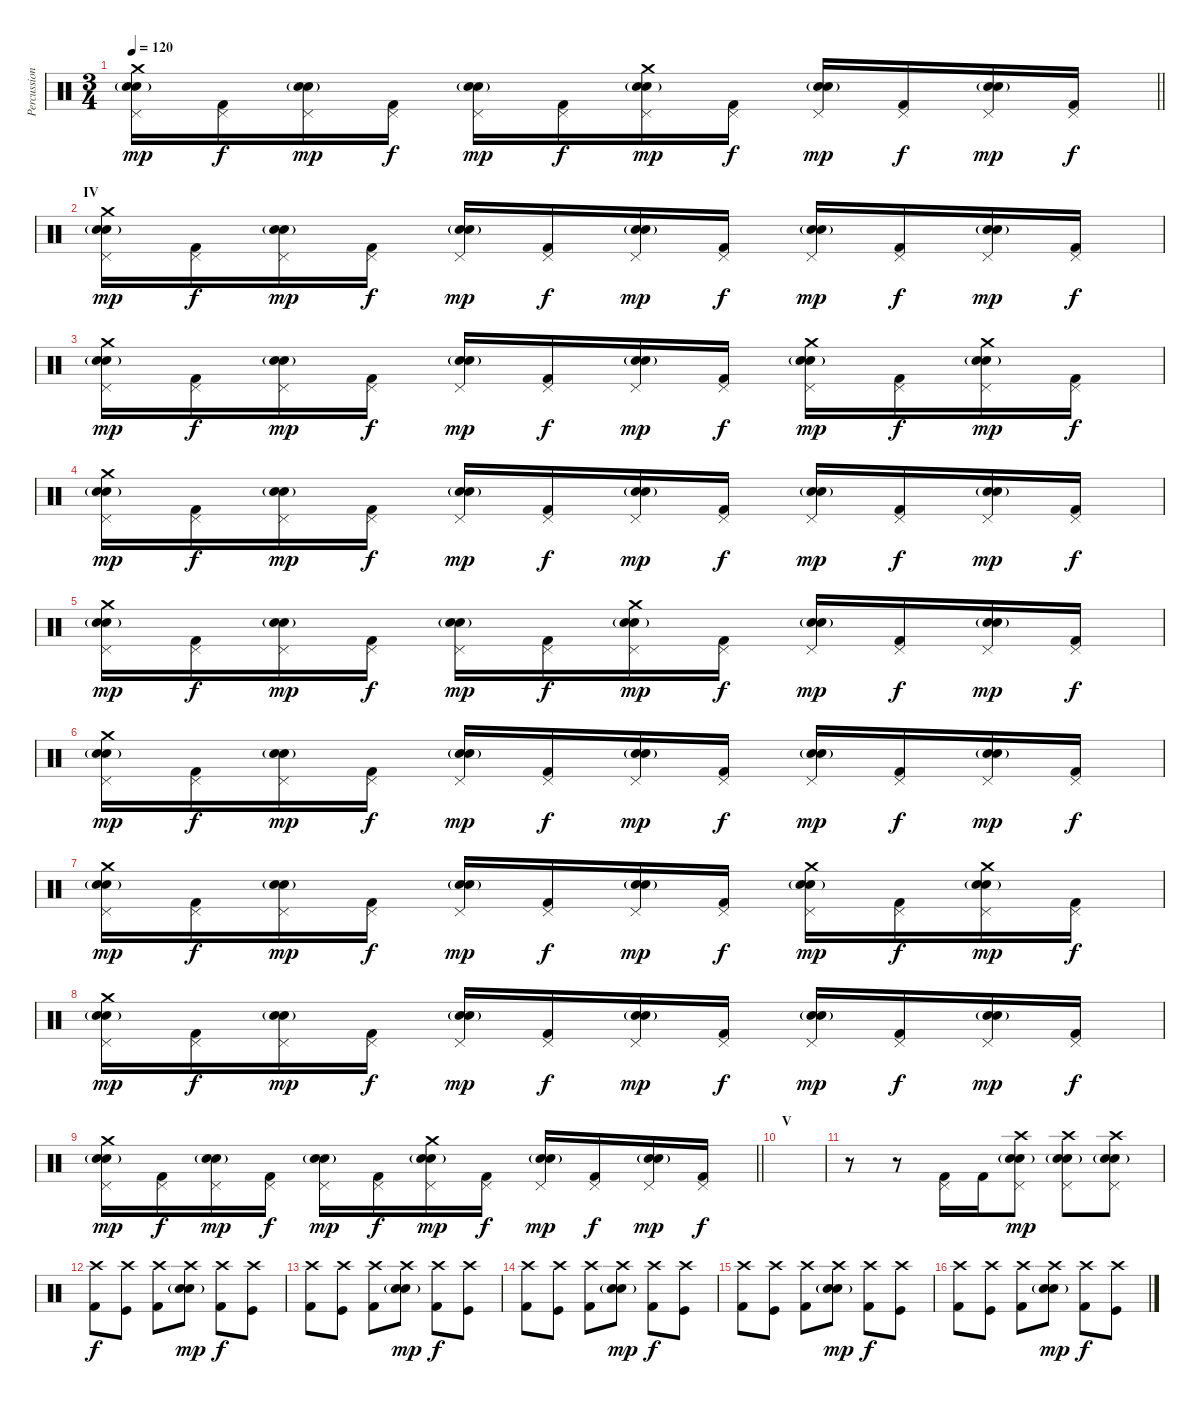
\track ("Percussion" "Percussion") {instrument percussion}
\staff {score}
\articulation defaults
\ts (3 4)
\tempo 120
\clef neutral
\barLineRight lightlight
\ks c
("Crash medium (hit)" "Electric Snare (hit)" "Snare (hit) 2"{g} "Pedal Hi-Hat (hit)").16{dy mp} ("Kick (hit) 2" "Pedal Hi-Hat (hit)").16{dy f} ("Electric Snare (hit)" "Snare (hit) 2"{g} "Pedal Hi-Hat (hit)").16{dy mp} ("Kick (hit) 2" "Pedal Hi-Hat (hit)").16{dy f} ("Electric Snare (hit)" "Snare (hit) 2"{g} "Pedal Hi-Hat (hit)").16{dy mp} ("Kick (hit) 2" "Pedal Hi-Hat (hit)").16{dy f} ("Crash medium (hit)" "Electric Snare (hit)" "Snare (hit) 2"{g} "Pedal Hi-Hat (hit)").16{dy mp} ("Kick (hit) 2" "Pedal Hi-Hat (hit)").16{dy f} ("Electric Snare (hit)" "Snare (hit) 2"{g} "Pedal Hi-Hat (hit)").16{dy mp} ("Kick (hit) 2" "Pedal Hi-Hat (hit)").16{dy f} ("Electric Snare (hit)" "Snare (hit) 2"{g} "Pedal Hi-Hat (hit)").16{dy mp} ("Kick (hit) 2" "Pedal Hi-Hat (hit)").16{dy f} |
\section ("" "IV")
("Crash medium (hit)" "Electric Snare (hit)" "Snare (hit) 2"{g} "Pedal Hi-Hat (hit)").16{dy mp} ("Kick (hit) 2" "Pedal Hi-Hat (hit)").16{dy f} ("Electric Snare (hit)" "Snare (hit) 2"{g} "Pedal Hi-Hat (hit)").16{dy mp} ("Kick (hit) 2" "Pedal Hi-Hat (hit)").16{dy f} ("Electric Snare (hit)" "Snare (hit) 2"{g} "Pedal Hi-Hat (hit)").16{dy mp} ("Kick (hit) 2" "Pedal Hi-Hat (hit)").16{dy f} ("Electric Snare (hit)" "Snare (hit) 2"{g} "Pedal Hi-Hat (hit)").16{dy mp} ("Kick (hit) 2" "Pedal Hi-Hat (hit)").16{dy f} ("Electric Snare (hit)" "Snare (hit) 2"{g} "Pedal Hi-Hat (hit)").16{dy mp} ("Kick (hit) 2" "Pedal Hi-Hat (hit)").16{dy f} ("Electric Snare (hit)" "Snare (hit) 2"{g} "Pedal Hi-Hat (hit)").16{dy mp} ("Kick (hit) 2" "Pedal Hi-Hat (hit)").16{dy f} |
("Crash medium (hit)" "Electric Snare (hit)" "Snare (hit) 2"{g} "Pedal Hi-Hat (hit)").16{dy mp} ("Kick (hit) 2" "Pedal Hi-Hat (hit)").16{dy f} ("Electric Snare (hit)" "Snare (hit) 2"{g} "Pedal Hi-Hat (hit)").16{dy mp} ("Kick (hit) 2" "Pedal Hi-Hat (hit)").16{dy f} ("Electric Snare (hit)" "Snare (hit) 2"{g} "Pedal Hi-Hat (hit)").16{dy mp} ("Kick (hit) 2" "Pedal Hi-Hat (hit)").16{dy f} ("Electric Snare (hit)" "Snare (hit) 2"{g} "Pedal Hi-Hat (hit)").16{dy mp} ("Kick (hit) 2" "Pedal Hi-Hat (hit)").16{dy f} ("Crash medium (hit)" "Electric Snare (hit)" "Snare (hit) 2"{g} "Pedal Hi-Hat (hit)").16{dy mp} ("Kick (hit) 2" "Pedal Hi-Hat (hit)").16{dy f} ("Crash medium (hit)" "Electric Snare (hit)" "Snare (hit) 2"{g} "Pedal Hi-Hat (hit)").16{dy mp} ("Kick (hit) 2" "Pedal Hi-Hat (hit)").16{dy f} |
("Crash medium (hit)" "Electric Snare (hit)" "Snare (hit) 2"{g} "Pedal Hi-Hat (hit)").16{dy mp} ("Kick (hit) 2" "Pedal Hi-Hat (hit)").16{dy f} ("Electric Snare (hit)" "Snare (hit) 2"{g} "Pedal Hi-Hat (hit)").16{dy mp} ("Kick (hit) 2" "Pedal Hi-Hat (hit)").16{dy f} ("Electric Snare (hit)" "Snare (hit) 2"{g} "Pedal Hi-Hat (hit)").16{dy mp} ("Kick (hit) 2" "Pedal Hi-Hat (hit)").16{dy f} ("Electric Snare (hit)" "Snare (hit) 2"{g} "Pedal Hi-Hat (hit)").16{dy mp} ("Kick (hit) 2" "Pedal Hi-Hat (hit)").16{dy f} ("Electric Snare (hit)" "Snare (hit) 2"{g} "Pedal Hi-Hat (hit)").16{dy mp} ("Kick (hit) 2" "Pedal Hi-Hat (hit)").16{dy f} ("Electric Snare (hit)" "Snare (hit) 2"{g} "Pedal Hi-Hat (hit)").16{dy mp} ("Kick (hit) 2" "Pedal Hi-Hat (hit)").16{dy f} |
("Crash medium (hit)" "Electric Snare (hit)" "Snare (hit) 2"{g} "Pedal Hi-Hat (hit)").16{dy mp} ("Kick (hit) 2" "Pedal Hi-Hat (hit)").16{dy f} ("Electric Snare (hit)" "Snare (hit) 2"{g} "Pedal Hi-Hat (hit)").16{dy mp} ("Kick (hit) 2" "Pedal Hi-Hat (hit)").16{dy f} ("Electric Snare (hit)" "Snare (hit) 2"{g} "Pedal Hi-Hat (hit)").16{dy mp} ("Kick (hit) 2" "Pedal Hi-Hat (hit)").16{dy f} ("Crash medium (hit)" "Electric Snare (hit)" "Snare (hit) 2"{g} "Pedal Hi-Hat (hit)").16{dy mp} ("Kick (hit) 2" "Pedal Hi-Hat (hit)").16{dy f} ("Electric Snare (hit)" "Snare (hit) 2"{g} "Pedal Hi-Hat (hit)").16{dy mp} ("Kick (hit) 2" "Pedal Hi-Hat (hit)").16{dy f} ("Electric Snare (hit)" "Snare (hit) 2"{g} "Pedal Hi-Hat (hit)").16{dy mp} ("Kick (hit) 2" "Pedal Hi-Hat (hit)").16{dy f} |
("Crash medium (hit)" "Electric Snare (hit)" "Snare (hit) 2"{g} "Pedal Hi-Hat (hit)").16{dy mp} ("Kick (hit) 2" "Pedal Hi-Hat (hit)").16{dy f} ("Electric Snare (hit)" "Snare (hit) 2"{g} "Pedal Hi-Hat (hit)").16{dy mp} ("Kick (hit) 2" "Pedal Hi-Hat (hit)").16{dy f} ("Electric Snare (hit)" "Snare (hit) 2"{g} "Pedal Hi-Hat (hit)").16{dy mp} ("Kick (hit) 2" "Pedal Hi-Hat (hit)").16{dy f} ("Electric Snare (hit)" "Snare (hit) 2"{g} "Pedal Hi-Hat (hit)").16{dy mp} ("Kick (hit) 2" "Pedal Hi-Hat (hit)").16{dy f} ("Electric Snare (hit)" "Snare (hit) 2"{g} "Pedal Hi-Hat (hit)").16{dy mp} ("Kick (hit) 2" "Pedal Hi-Hat (hit)").16{dy f} ("Electric Snare (hit)" "Snare (hit) 2"{g} "Pedal Hi-Hat (hit)").16{dy mp} ("Kick (hit) 2" "Pedal Hi-Hat (hit)").16{dy f} |
("Crash medium (hit)" "Electric Snare (hit)" "Snare (hit) 2"{g} "Pedal Hi-Hat (hit)").16{dy mp} ("Kick (hit) 2" "Pedal Hi-Hat (hit)").16{dy f} ("Electric Snare (hit)" "Snare (hit) 2"{g} "Pedal Hi-Hat (hit)").16{dy mp} ("Kick (hit) 2" "Pedal Hi-Hat (hit)").16{dy f} ("Electric Snare (hit)" "Snare (hit) 2"{g} "Pedal Hi-Hat (hit)").16{dy mp} ("Kick (hit) 2" "Pedal Hi-Hat (hit)").16{dy f} ("Electric Snare (hit)" "Snare (hit) 2"{g} "Pedal Hi-Hat (hit)").16{dy mp} ("Kick (hit) 2" "Pedal Hi-Hat (hit)").16{dy f} ("Crash medium (hit)" "Electric Snare (hit)" "Snare (hit) 2"{g} "Pedal Hi-Hat (hit)").16{dy mp} ("Kick (hit) 2" "Pedal Hi-Hat (hit)").16{dy f} ("Crash medium (hit)" "Electric Snare (hit)" "Snare (hit) 2"{g} "Pedal Hi-Hat (hit)").16{dy mp} ("Kick (hit) 2" "Pedal Hi-Hat (hit)").16{dy f} |
("Crash medium (hit)" "Electric Snare (hit)" "Snare (hit) 2"{g} "Pedal Hi-Hat (hit)").16{dy mp} ("Kick (hit) 2" "Pedal Hi-Hat (hit)").16{dy f} ("Electric Snare (hit)" "Snare (hit) 2"{g} "Pedal Hi-Hat (hit)").16{dy mp} ("Kick (hit) 2" "Pedal Hi-Hat (hit)").16{dy f} ("Electric Snare (hit)" "Snare (hit) 2"{g} "Pedal Hi-Hat (hit)").16{dy mp} ("Kick (hit) 2" "Pedal Hi-Hat (hit)").16{dy f} ("Electric Snare (hit)" "Snare (hit) 2"{g} "Pedal Hi-Hat (hit)").16{dy mp} ("Kick (hit) 2" "Pedal Hi-Hat (hit)").16{dy f} ("Electric Snare (hit)" "Snare (hit) 2"{g} "Pedal Hi-Hat (hit)").16{dy mp} ("Kick (hit) 2" "Pedal Hi-Hat (hit)").16{dy f} ("Electric Snare (hit)" "Snare (hit) 2"{g} "Pedal Hi-Hat (hit)").16{dy mp} ("Kick (hit) 2" "Pedal Hi-Hat (hit)").16{dy f} |
\barLineRight lightlight
("Crash medium (hit)" "Electric Snare (hit)" "Snare (hit) 2"{g} "Pedal Hi-Hat (hit)").16{dy mp} ("Kick (hit) 2" "Pedal Hi-Hat (hit)").16{dy f} ("Electric Snare (hit)" "Snare (hit) 2"{g} "Pedal Hi-Hat (hit)").16{dy mp} ("Kick (hit) 2" "Pedal Hi-Hat (hit)").16{dy f} ("Electric Snare (hit)" "Snare (hit) 2"{g} "Pedal Hi-Hat (hit)").16{dy mp} ("Kick (hit) 2" "Pedal Hi-Hat (hit)").16{dy f} ("Crash medium (hit)" "Electric Snare (hit)" "Snare (hit) 2"{g} "Pedal Hi-Hat (hit)").16{dy mp} ("Kick (hit) 2" "Pedal Hi-Hat (hit)").16{dy f} ("Electric Snare (hit)" "Snare (hit) 2"{g} "Pedal Hi-Hat (hit)").16{dy mp} ("Kick (hit) 2" "Pedal Hi-Hat (hit)").16{dy f} ("Electric Snare (hit)" "Snare (hit) 2"{g} "Pedal Hi-Hat (hit)").16{dy mp} ("Kick (hit) 2" "Pedal Hi-Hat (hit)").16{dy f} |
\section ("" "V")
|
r.8 r.8 ("Kick (hit) 2" "Pedal Hi-Hat (hit)").16 "Kick (hit) 2".16 ("Crash high (hit)" "Electric Snare (hit)" "Snare (hit) 2"{g} "Pedal Hi-Hat (hit)").8{dy mp} ("Crash high (hit)" "Electric Snare (hit)" "Snare (hit) 2"{g} "Pedal Hi-Hat (hit)").8 ("Crash high (hit)" "Electric Snare (hit)" "Snare (hit) 2"{g} "Pedal Hi-Hat (hit)").8 |
("Crash high (hit)" "Kick (hit) 2").8{dy f} ("Crash high (hit)" "Kick (hit)").8 ("Crash high (hit)" "Kick (hit) 2").8 ("Crash high (hit)" "Electric Snare (hit)" "Snare (hit) 2"{g}).8{dy mp} ("Crash high (hit)" "Kick (hit) 2").8{dy f} ("Crash high (hit)" "Kick (hit)").8 |
("Crash high (hit)" "Kick (hit) 2").8 ("Crash high (hit)" "Kick (hit)").8 ("Crash high (hit)" "Kick (hit) 2").8 ("Crash high (hit)" "Electric Snare (hit)" "Snare (hit) 2"{g}).8{dy mp} ("Crash high (hit)" "Kick (hit) 2").8{dy f} ("Crash high (hit)" "Kick (hit)").8 |
("Crash high (hit)" "Kick (hit) 2").8 ("Crash high (hit)" "Kick (hit)").8 ("Crash high (hit)" "Kick (hit) 2").8 ("Crash high (hit)" "Electric Snare (hit)" "Snare (hit) 2"{g}).8{dy mp} ("Crash high (hit)" "Kick (hit) 2").8{dy f} ("Crash high (hit)" "Kick (hit)").8 |
("Crash high (hit)" "Kick (hit) 2").8 ("Crash high (hit)" "Kick (hit)").8 ("Crash high (hit)" "Kick (hit) 2").8 ("Crash high (hit)" "Electric Snare (hit)" "Snare (hit) 2"{g}).8{dy mp} ("Crash high (hit)" "Kick (hit) 2").8{dy f} ("Crash high (hit)" "Kick (hit)").8 |
("Crash high (hit)" "Kick (hit) 2").8 ("Crash high (hit)" "Kick (hit)").8 ("Crash high (hit)" "Kick (hit) 2").8 ("Crash high (hit)" "Electric Snare (hit)" "Snare (hit) 2"{g}).8{dy mp} ("Crash high (hit)" "Kick (hit) 2").8{dy f} ("Crash high (hit)" "Kick (hit)").8
